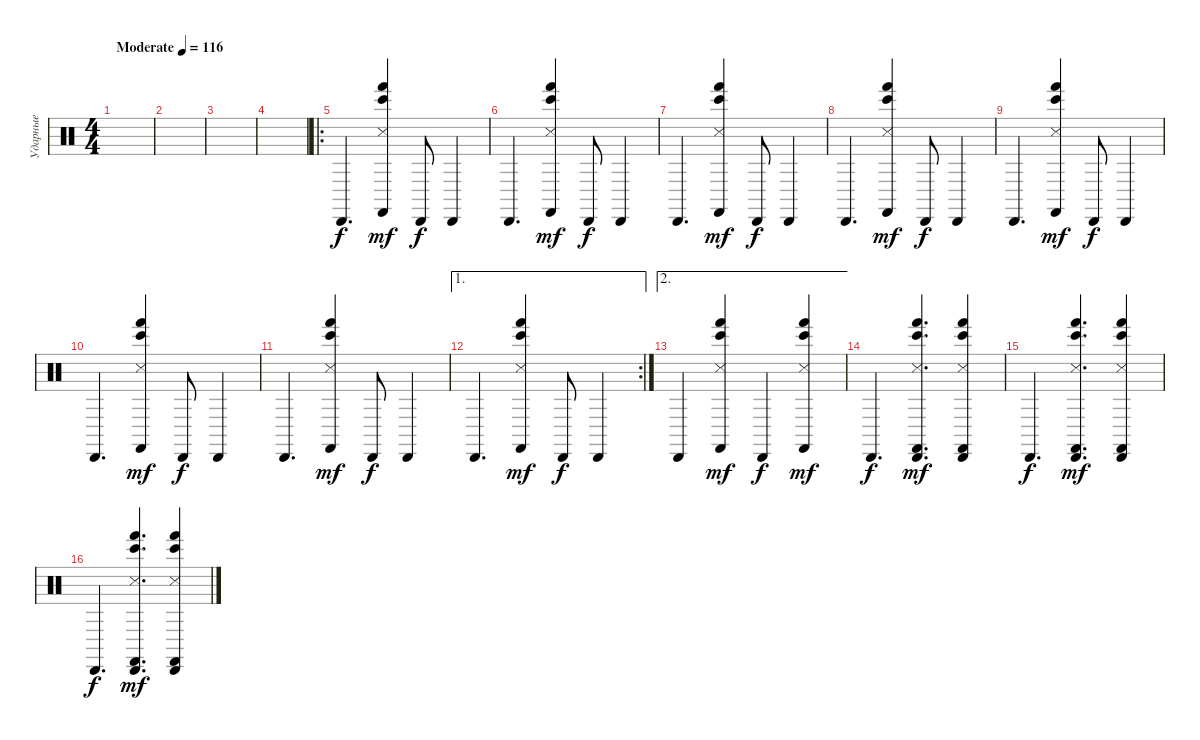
\track ("Ударные" "Ударные") {instrument percussion}
\staff {score}
\articulation defaults
\ts (4 4)
\tempo (116 "Moderate")
\clef neutral
\ks c
|
|
|
|
\ro "Cabasa (hit)".4{d}
("Castanets (hit)" "Hand (hit)" "Snare (side stick) 3" "Bongo High (hit)").4{dy mf} "Cabasa (hit)".8{dy f} "Cabasa (hit)".4 |
"Cabasa (hit)".4{d} ("Castanets (hit)" "Hand (hit)" "Snare (side stick) 3" "Bongo High (hit)").4{dy mf} "Cabasa (hit)".8{dy f} "Cabasa (hit)".4 |
"Cabasa (hit)".4{d} ("Castanets (hit)" "Hand (hit)" "Snare (side stick) 3" "Bongo High (hit)").4{dy mf} "Cabasa (hit)".8{dy f} "Cabasa (hit)".4 |
"Cabasa (hit)".4{d} ("Castanets (hit)" "Hand (hit)" "Snare (side stick) 3" "Bongo High (hit)").4{dy mf} "Cabasa (hit)".8{dy f} "Cabasa (hit)".4 |
"Cabasa (hit)".4{d} ("Castanets (hit)" "Hand (hit)" "Snare (side stick) 3" "Bongo High (hit)").4{dy mf} "Cabasa (hit)".8{dy f} "Cabasa (hit)".4 |
"Cabasa (hit)".4{d} ("Castanets (hit)" "Hand (hit)" "Snare (side stick) 3" "Bongo High (hit)").4{dy mf} "Cabasa (hit)".8{dy f} "Cabasa (hit)".4 |
"Cabasa (hit)".4{d} ("Castanets (hit)" "Hand (hit)" "Snare (side stick) 3" "Bongo High (hit)").4{dy mf} "Cabasa (hit)".8{dy f} "Cabasa (hit)".4 |
\ae 1
\rc 2 "Cabasa (hit)".4{d}
("Castanets (hit)" "Hand (hit)" "Snare (side stick) 3" "Bongo High (hit)").4{dy mf} "Cabasa (hit)".8{dy f} "Cabasa (hit)".4 |
\ae 2 "Cabasa (hit)".4
("Castanets (hit)" "Hand (hit)" "Snare (side stick) 3" "Bongo High (hit)").4{dy mf} "Cabasa (hit)".4{dy f} ("Castanets (hit)" "Hand (hit)" "Snare (side stick) 3" "Bongo High (hit)").4{dy mf} |
"Cabasa (hit)".4{d dy f} ("Castanets (hit)" "Hand (hit)" "Snare (side stick) 3" "Bongo High (hit)" "Cabasa (hit)").4{d dy mf} ("Castanets (hit)" "Hand (hit)" "Snare (side stick) 3" "Bongo High (hit)" "Cabasa (hit)").4 |
"Cabasa (hit)".4{d dy f} ("Castanets (hit)" "Hand (hit)" "Snare (side stick) 3" "Bongo High (hit)" "Cabasa (hit)").4{d dy mf} ("Castanets (hit)" "Hand (hit)" "Snare (side stick) 3" "Bongo High (hit)" "Cabasa (hit)").4 |
"Cabasa (hit)".4{d dy f} ("Castanets (hit)" "Hand (hit)" "Snare (side stick) 3" "Bongo High (hit)" "Cabasa (hit)").4{d dy mf} ("Castanets (hit)" "Hand (hit)" "Snare (side stick) 3" "Bongo High (hit)" "Cabasa (hit)").4
